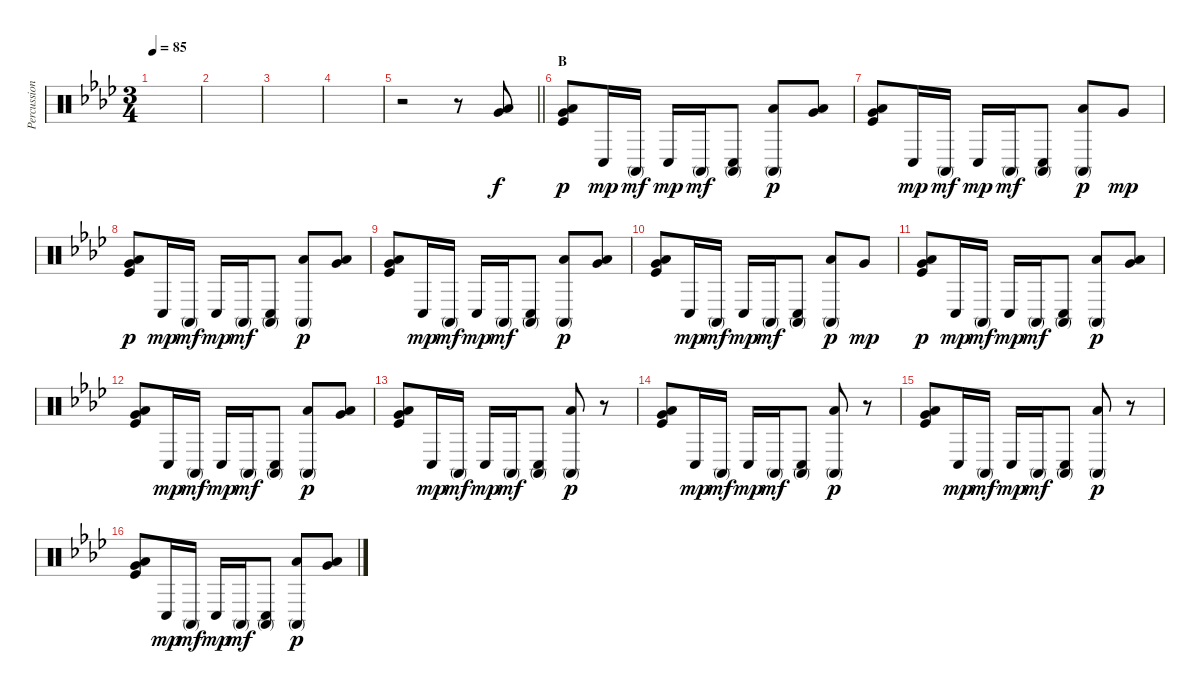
\track ("Percussion" "Percussion") {instrument percussion}
\staff {score}
\articulation defaults
\ts (3 4)
\tempo 85
\clef neutral
\ks fminor
|
|
|
|
\barLineRight lightlight
r.2 r.8 ("Low Floor Tom (hit)" "Very Low Tom (hit)").8 |
\section ("" "B")
("Kick (hit)" "Low Floor Tom (hit)" "Very Low Tom (hit)").8{dy p} "Conga low (hit)".16{dy mp} "Conga high (mute)".16{dy mf} "Conga low (hit)".16{dy mp} "Conga high (mute)".16{dy mf} ("Conga low (hit)" "Conga high (mute)").8 ("Low Tom (hit)" "Conga high (mute)").8{dy p} ("Low Floor Tom (hit)" "Very Low Tom (hit)").8 |
("Kick (hit)" "Low Floor Tom (hit)" "Very Low Tom (hit)").8 "Conga low (hit)".16{dy mp} "Conga high (mute)".16{dy mf} "Conga low (hit)".16{dy mp} "Conga high (mute)".16{dy mf} ("Conga low (hit)" "Conga high (mute)").8 ("Low Tom (hit)" "Conga high (mute)").8{dy p} "Very Low Tom (hit)".8{dy mp} |
("Kick (hit)" "Low Floor Tom (hit)" "Very Low Tom (hit)").8{dy p} "Conga low (hit)".16{dy mp} "Conga high (mute)".16{dy mf} "Conga low (hit)".16{dy mp} "Conga high (mute)".16{dy mf} ("Conga low (hit)" "Conga high (mute)").8 ("Low Tom (hit)" "Conga high (mute)").8{dy p} ("Low Floor Tom (hit)" "Very Low Tom (hit)").8 |
("Kick (hit)" "Low Floor Tom (hit)" "Very Low Tom (hit)").8 "Conga low (hit)".16{dy mp} "Conga high (mute)".16{dy mf} "Conga low (hit)".16{dy mp} "Conga high (mute)".16{dy mf} ("Conga low (hit)" "Conga high (mute)").8 ("Low Tom (hit)" "Conga high (mute)").8{dy p} ("Low Floor Tom (hit)" "Very Low Tom (hit)").8 |
("Kick (hit)" "Low Floor Tom (hit)" "Very Low Tom (hit)").8 "Conga low (hit)".16{dy mp} "Conga high (mute)".16{dy mf} "Conga low (hit)".16{dy mp} "Conga high (mute)".16{dy mf} ("Conga low (hit)" "Conga high (mute)").8 ("Low Tom (hit)" "Conga high (mute)").8{dy p} "Very Low Tom (hit)".8{dy mp} |
("Kick (hit)" "Low Floor Tom (hit)" "Very Low Tom (hit)").8{dy p} "Conga low (hit)".16{dy mp} "Conga high (mute)".16{dy mf} "Conga low (hit)".16{dy mp} "Conga high (mute)".16{dy mf} ("Conga low (hit)" "Conga high (mute)").8 ("Low Tom (hit)" "Conga high (mute)").8{dy p} ("Low Floor Tom (hit)" "Very Low Tom (hit)").8 |
("Kick (hit)" "Low Floor Tom (hit)" "Very Low Tom (hit)").8 "Conga low (hit)".16{dy mp} "Conga high (mute)".16{dy mf} "Conga low (hit)".16{dy mp} "Conga high (mute)".16{dy mf} ("Conga low (hit)" "Conga high (mute)").8 ("Low Tom (hit)" "Conga high (mute)").8{dy p} ("Low Floor Tom (hit)" "Very Low Tom (hit)").8 |
("Kick (hit)" "Low Floor Tom (hit)" "Very Low Tom (hit)").8 "Conga low (hit)".16{dy mp} "Conga high (mute)".16{dy mf} "Conga low (hit)".16{dy mp} "Conga high (mute)".16{dy mf} ("Conga low (hit)" "Conga high (mute)").8 ("Low Tom (hit)" "Conga high (mute)").8{dy p} r.8 |
("Kick (hit)" "Low Floor Tom (hit)" "Very Low Tom (hit)").8 "Conga low (hit)".16{dy mp} "Conga high (mute)".16{dy mf} "Conga low (hit)".16{dy mp} "Conga high (mute)".16{dy mf} ("Conga low (hit)" "Conga high (mute)").8 ("Low Tom (hit)" "Conga high (mute)").8{dy p} r.8 |
("Kick (hit)" "Low Floor Tom (hit)" "Very Low Tom (hit)").8 "Conga low (hit)".16{dy mp} "Conga high (mute)".16{dy mf} "Conga low (hit)".16{dy mp} "Conga high (mute)".16{dy mf} ("Conga low (hit)" "Conga high (mute)").8 ("Low Tom (hit)" "Conga high (mute)").8{dy p} r.8 |
("Kick (hit)" "Low Floor Tom (hit)" "Very Low Tom (hit)").8 "Conga low (hit)".16{dy mp} "Conga high (mute)".16{dy mf} "Conga low (hit)".16{dy mp} "Conga high (mute)".16{dy mf} ("Conga low (hit)" "Conga high (mute)").8 ("Low Tom (hit)" "Conga high (mute)").8{dy p} ("Low Floor Tom (hit)" "Very Low Tom (hit)").8
